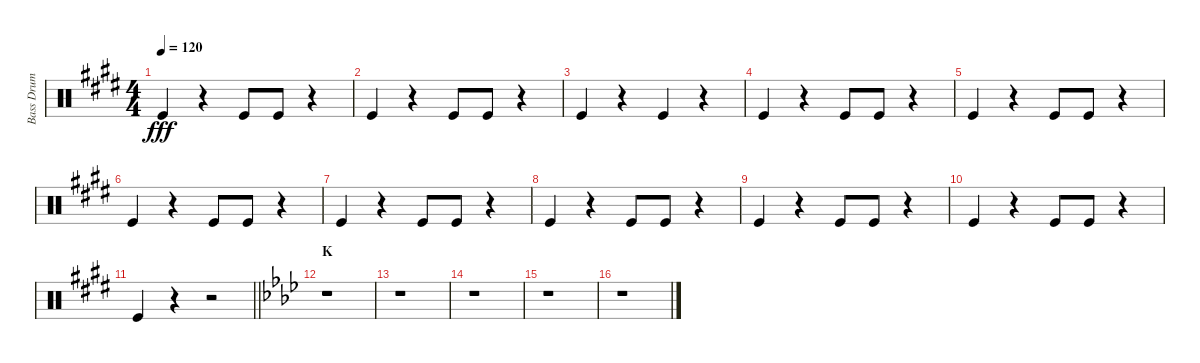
\track ("Bass Drum" "Bass Drum") {instrument percussion}
\staff {score}
\articulation defaults
\ts (4 4)
\tempo 120
\clef neutral
\ks e "Kick (hit)".4{dy fff}
r.4 "Kick (hit)".8 "Kick (hit)".8 r.4 |
"Kick (hit)".4 r.4 "Kick (hit)".8 "Kick (hit)".8 r.4 |
"Kick (hit)".4 r.4 "Kick (hit)".4 r.4 |
"Kick (hit)".4 r.4 "Kick (hit)".8 "Kick (hit)".8 r.4 |
"Kick (hit)".4 r.4 "Kick (hit)".8 "Kick (hit)".8 r.4 |
"Kick (hit)".4 r.4 "Kick (hit)".8 "Kick (hit)".8 r.4 |
"Kick (hit)".4 r.4 "Kick (hit)".8 "Kick (hit)".8 r.4 |
"Kick (hit)".4 r.4 "Kick (hit)".8 "Kick (hit)".8 r.4 |
"Kick (hit)".4 r.4 "Kick (hit)".8 "Kick (hit)".8 r.4 |
"Kick (hit)".4 r.4 "Kick (hit)".8 "Kick (hit)".8 r.4 |
\barLineRight lightlight "Kick (hit)".4
r.4 r.2 |
\section ("" "K")
\ks ab
r.1 |
r.1 |
r.1 |
r.1 |
r.1
